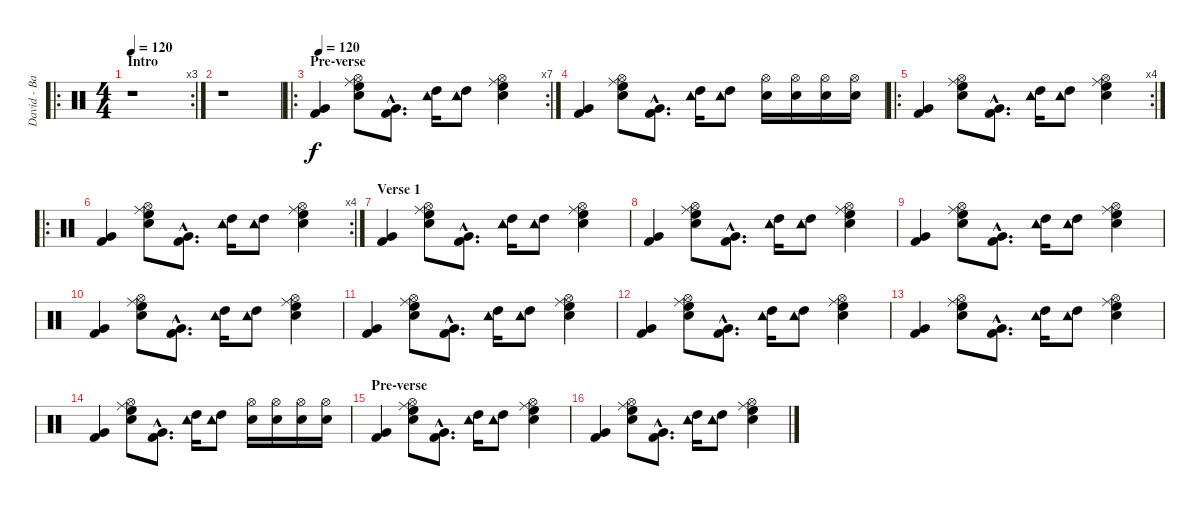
\track ("David - Batterie" "David - Ba") {instrument percussion}
\staff {score}
\articulation defaults
\ro
\rc 3
\ts (4 4)
\section ("" "Intro")
\tempo 120
\tempo 100
\tempo 120
\clef neutral
\ks c
r.1{dy f} |
r.1 |
\ro
\rc 7
\section ("" "Pre-verse")
\tempo 120
("Kick (hit) 2" "Very Low Tom (hit)").4 ("Snare (hit) 2" "Hi-Hat (open)" "High Floor Tom (hit)" "Ride (middle)").8 ("Kick (hit) 2"{hac} "Very Low Tom (hit)"{hac}).8{d} ("High Tom (hit)" "Tambourine (hit)").16 ("High Tom (hit)" "Tambourine (hit)").8 ("Snare (hit) 2" "Hi-Hat (open)" "High Floor Tom (hit)" "Ride (middle)").4 |
("Kick (hit) 2" "Very Low Tom (hit)").4 ("Snare (hit) 2" "Hi-Hat (open)" "High Floor Tom (hit)" "Ride (middle)").8 ("Kick (hit) 2"{hac} "Very Low Tom (hit)"{hac}).8{d} ("High Tom (hit)" "Tambourine (hit)").16 ("High Tom (hit)" "Tambourine (hit)").8 ("Snare (hit) 2" "Hi-Hat (open)").16 ("Snare (hit) 2" "Hi-Hat (open)").16 ("Snare (hit) 2" "Hi-Hat (open)").16 ("Snare (hit) 2" "Hi-Hat (open)").16 |
\ro
\rc 4
("Kick (hit) 2" "Very Low Tom (hit)").4 ("Snare (hit) 2" "Hi-Hat (open)" "High Floor Tom (hit)" "Ride (middle)").8 ("Kick (hit) 2"{hac} "Very Low Tom (hit)"{hac}).8{d} ("High Tom (hit)" "Tambourine (hit)").16 ("High Tom (hit)" "Tambourine (hit)").8 ("Snare (hit) 2" "Hi-Hat (open)" "High Floor Tom (hit)" "Ride (middle)").4 |
\ro
\rc 4
("Kick (hit) 2" "Very Low Tom (hit)").4 ("Snare (hit) 2" "Hi-Hat (open)" "High Floor Tom (hit)" "Ride (middle)").8 ("Kick (hit) 2"{hac} "Very Low Tom (hit)"{hac}).8{d} ("High Tom (hit)" "Tambourine (hit)").16 ("High Tom (hit)" "Tambourine (hit)").8 ("Snare (hit) 2" "Hi-Hat (open)" "High Floor Tom (hit)" "Ride (middle)").4 |
\section ("" "Verse 1")
("Kick (hit) 2" "Very Low Tom (hit)").4 ("Snare (hit) 2" "Hi-Hat (open)" "High Floor Tom (hit)" "Ride (middle)").8 ("Kick (hit) 2"{hac} "Very Low Tom (hit)"{hac}).8{d} ("High Tom (hit)" "Tambourine (hit)").16 ("High Tom (hit)" "Tambourine (hit)").8 ("Snare (hit) 2" "Hi-Hat (open)" "High Floor Tom (hit)" "Ride (middle)").4 |
("Kick (hit) 2" "Very Low Tom (hit)").4 ("Snare (hit) 2" "Hi-Hat (open)" "High Floor Tom (hit)" "Ride (middle)").8 ("Kick (hit) 2"{hac} "Very Low Tom (hit)"{hac}).8{d} ("High Tom (hit)" "Tambourine (hit)").16 ("High Tom (hit)" "Tambourine (hit)").8 ("Snare (hit) 2" "Hi-Hat (open)" "High Floor Tom (hit)" "Ride (middle)").4 |
("Kick (hit) 2" "Very Low Tom (hit)").4 ("Snare (hit) 2" "Hi-Hat (open)" "High Floor Tom (hit)" "Ride (middle)").8 ("Kick (hit) 2"{hac} "Very Low Tom (hit)"{hac}).8{d} ("High Tom (hit)" "Tambourine (hit)").16 ("High Tom (hit)" "Tambourine (hit)").8 ("Snare (hit) 2" "Hi-Hat (open)" "High Floor Tom (hit)" "Ride (middle)").4 |
("Kick (hit) 2" "Very Low Tom (hit)").4 ("Snare (hit) 2" "Hi-Hat (open)" "High Floor Tom (hit)" "Ride (middle)").8 ("Kick (hit) 2"{hac} "Very Low Tom (hit)"{hac}).8{d} ("High Tom (hit)" "Tambourine (hit)").16 ("High Tom (hit)" "Tambourine (hit)").8 ("Snare (hit) 2" "Hi-Hat (open)" "High Floor Tom (hit)" "Ride (middle)").4 |
("Kick (hit) 2" "Very Low Tom (hit)").4 ("Snare (hit) 2" "Hi-Hat (open)" "High Floor Tom (hit)" "Ride (middle)").8 ("Kick (hit) 2"{hac} "Very Low Tom (hit)"{hac}).8{d} ("High Tom (hit)" "Tambourine (hit)").16 ("High Tom (hit)" "Tambourine (hit)").8 ("Snare (hit) 2" "Hi-Hat (open)" "High Floor Tom (hit)" "Ride (middle)").4 |
("Kick (hit) 2" "Very Low Tom (hit)").4 ("Snare (hit) 2" "Hi-Hat (open)" "High Floor Tom (hit)" "Ride (middle)").8 ("Kick (hit) 2"{hac} "Very Low Tom (hit)"{hac}).8{d} ("High Tom (hit)" "Tambourine (hit)").16 ("High Tom (hit)" "Tambourine (hit)").8 ("Snare (hit) 2" "Hi-Hat (open)" "High Floor Tom (hit)" "Ride (middle)").4 |
("Kick (hit) 2" "Very Low Tom (hit)").4 ("Snare (hit) 2" "Hi-Hat (open)" "High Floor Tom (hit)" "Ride (middle)").8 ("Kick (hit) 2"{hac} "Very Low Tom (hit)"{hac}).8{d} ("High Tom (hit)" "Tambourine (hit)").16 ("High Tom (hit)" "Tambourine (hit)").8 ("Snare (hit) 2" "Hi-Hat (open)" "High Floor Tom (hit)" "Ride (middle)").4 |
("Kick (hit) 2" "Very Low Tom (hit)").4 ("Snare (hit) 2" "Hi-Hat (open)" "High Floor Tom (hit)" "Ride (middle)").8 ("Kick (hit) 2"{hac} "Very Low Tom (hit)"{hac}).8{d} ("High Tom (hit)" "Tambourine (hit)").16 ("High Tom (hit)" "Tambourine (hit)").8 ("Snare (hit) 2" "Hi-Hat (open)").16 ("Snare (hit) 2" "Hi-Hat (open)").16 ("Snare (hit) 2" "Hi-Hat (open)").16 ("Snare (hit) 2" "Hi-Hat (open)").16 |
\section ("" "Pre-verse")
("Kick (hit) 2" "Very Low Tom (hit)").4 ("Snare (hit) 2" "Hi-Hat (open)" "High Floor Tom (hit)" "Ride (middle)").8 ("Kick (hit) 2"{hac} "Very Low Tom (hit)"{hac}).8{d} ("High Tom (hit)" "Tambourine (hit)").16 ("High Tom (hit)" "Tambourine (hit)").8 ("Snare (hit) 2" "Hi-Hat (open)" "High Floor Tom (hit)" "Ride (middle)").4 |
("Kick (hit) 2" "Very Low Tom (hit)").4 ("Snare (hit) 2" "Hi-Hat (open)" "High Floor Tom (hit)" "Ride (middle)").8 ("Kick (hit) 2"{hac} "Very Low Tom (hit)"{hac}).8{d} ("High Tom (hit)" "Tambourine (hit)").16 ("High Tom (hit)" "Tambourine (hit)").8 ("Snare (hit) 2" "Hi-Hat (open)" "High Floor Tom (hit)" "Ride (middle)").4
